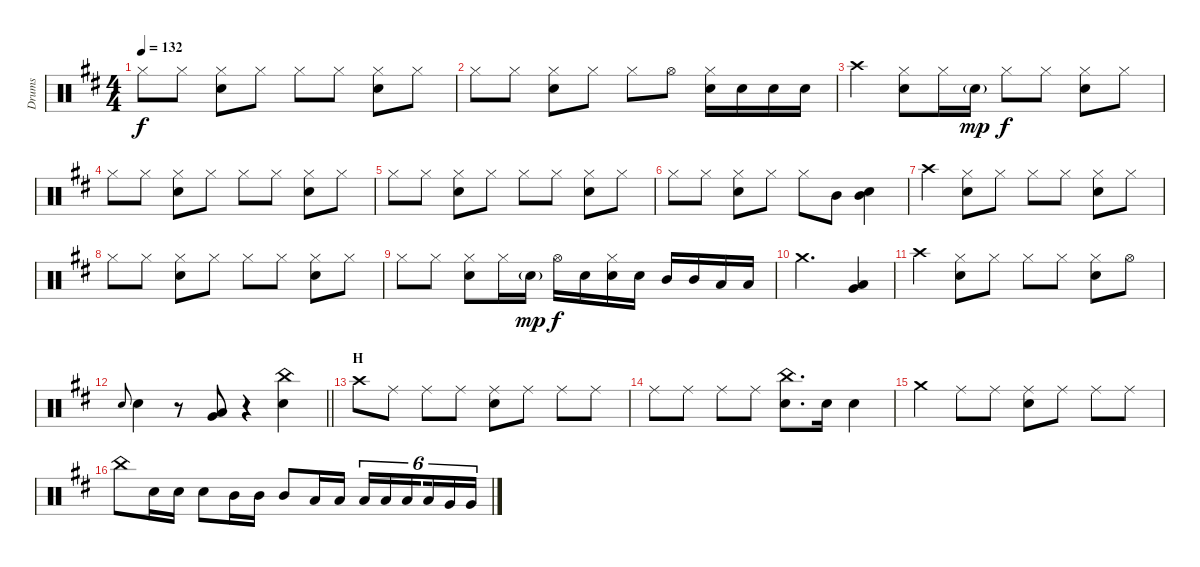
\track ("Drums" "Drums") {instrument percussion}
\staff {score}
\articulation defaults
\ts (4 4)
\tempo 132
\clef neutral
\ks d "Hi-Hat (closed)".8{dy f} "Hi-Hat (closed)".8
("Hi-Hat (closed)" "Snare (hit) 2").8 "Hi-Hat (closed)".8 "Hi-Hat (closed)".8 "Hi-Hat (closed)".8 ("Hi-Hat (closed)" "Snare (hit) 2").8 "Hi-Hat (closed)".8 |
"Hi-Hat (closed)".8 "Hi-Hat (closed)".8 ("Hi-Hat (closed)" "Snare (hit) 2").8 "Hi-Hat (closed)".8 "Hi-Hat (closed)".8 "Hi-Hat (open)".8 ("Hi-Hat (closed)" "Snare (hit) 2").16 "Snare (hit) 2".16 "Snare (hit) 2".16 "Snare (hit) 2".16 |
"Crash high (hit)".4 ("Hi-Hat (closed)" "Snare (hit) 2").8 "Hi-Hat (closed)".16 "Snare (hit) 2"{g}.16{dy mp} "Hi-Hat (closed)".8{dy f} "Hi-Hat (closed)".8 ("Hi-Hat (closed)" "Snare (hit) 2").8 "Hi-Hat (closed)".8 |
"Hi-Hat (closed)".8 "Hi-Hat (closed)".8 ("Hi-Hat (closed)" "Snare (hit) 2").8 "Hi-Hat (closed)".8 "Hi-Hat (closed)".8 "Hi-Hat (closed)".8 ("Hi-Hat (closed)" "Snare (hit) 2").8 "Hi-Hat (closed)".8 |
"Hi-Hat (closed)".8 "Hi-Hat (closed)".8 ("Hi-Hat (closed)" "Snare (hit) 2").8 "Hi-Hat (closed)".8 "Hi-Hat (closed)".8 "Hi-Hat (closed)".8 ("Hi-Hat (closed)" "Snare (hit) 2").8 "Hi-Hat (closed)".8 |
"Hi-Hat (closed)".8 "Hi-Hat (closed)".8 ("Hi-Hat (closed)" "Snare (hit) 2").8 "Hi-Hat (closed)".8 "Hi-Hat (closed)".8 "Mid Tom (hit)".8 ("Mid Tom (hit)" "Snare (hit) 2").4 |
"Crash high (hit)".4 ("Hi-Hat (closed)" "Snare (hit) 2").8 "Hi-Hat (closed)".8 "Hi-Hat (closed)".8 "Hi-Hat (closed)".8 ("Hi-Hat (closed)" "Snare (hit) 2").8 "Hi-Hat (closed)".8 |
"Hi-Hat (closed)".8 "Hi-Hat (closed)".8 ("Hi-Hat (closed)" "Snare (hit) 2").8 "Hi-Hat (closed)".8 "Hi-Hat (closed)".8 "Hi-Hat (closed)".8 ("Hi-Hat (closed)" "Snare (hit) 2").8 "Hi-Hat (closed)".8 |
"Hi-Hat (closed)".8 "Hi-Hat (closed)".8 ("Hi-Hat (closed)" "Snare (hit) 2").8 "Hi-Hat (closed)".16 "Snare (hit) 2"{g}.16{dy mp} "Hi-Hat (open)".16{dy f} "Snare (hit) 2".16 ("Hi-Hat (closed)" "Snare (hit) 2").16 "Snare (hit) 2".16 "Mid Tom (hit)".16 "Mid Tom (hit)".16 "Low Tom (hit)".16 "Low Tom (hit)".16 |
"Crash medium (hit)".2{d} ("Low Tom (hit)" "Very Low Tom (hit)").4 |
"Crash high (hit)".4 ("Hi-Hat (closed)" "Snare (hit) 2").8 "Hi-Hat (closed)".8 "Hi-Hat (closed)".8 "Hi-Hat (closed)".8 ("Hi-Hat (closed)" "Snare (hit) 2").8 "Hi-Hat (open)".8 |
\barLineRight lightlight "Snare (hit) 2".8{gr onbeat} "Snare (hit) 2".4
r.8 ("Low Tom (hit)" "Very Low Tom (hit)").8 r.4 ("China (hit)" "Snare (hit) 2").4 |
\section ("" "H")
"Crash high (hit)".8 "Ride (middle)".8 "Ride (middle)".8 "Ride (middle)".8 ("Ride (middle)" "Snare (hit) 2").8 "Ride (middle)".8 "Ride (middle)".8 "Ride (middle)".8 |
"Ride (middle)".8 "Ride (middle)".8 "Ride (middle)".8 "Ride (middle)".8 ("China (hit)" "Snare (hit) 2").8{d} "Snare (hit) 2".16 "Snare (hit) 2".4 |
"Crash medium (hit)".4 "Ride (middle)".8 "Ride (middle)".8 ("Ride (middle)" "Snare (hit) 2").8 "Ride (middle)".8 "Ride (middle)".8 "Ride (middle)".8 |
"China (hit)".8 "Snare (hit) 2".16 "Snare (hit) 2".16 "Snare (hit) 2".8 "Mid Tom (hit)".16 "Mid Tom (hit)".16 "Mid Tom (hit)".8 "Low Tom (hit)".16 "Low Tom (hit)".16 "Low Tom (hit)".16{tu (6 4)} "Low Tom (hit)".16{tu (6 4)} "Low Tom (hit)".16{tu (6 4) beam splitsecondary} "Low Tom (hit)".16{tu (6 4)} "Very Low Tom (hit)".16{tu (6 4)} "Very Low Tom (hit)".16{tu (6 4)}
